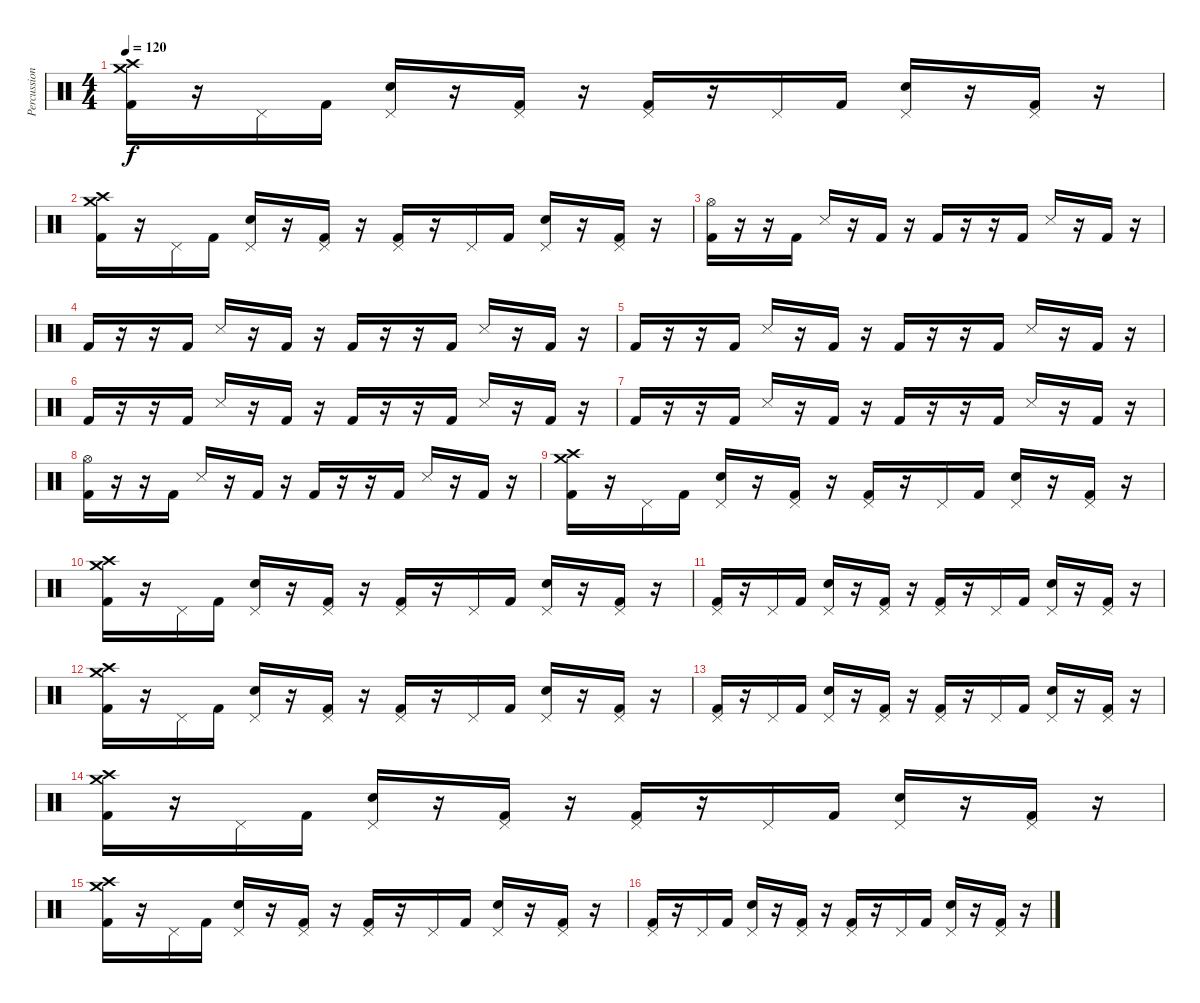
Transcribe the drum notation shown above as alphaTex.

\track ("Percussion" "Percussion") {instrument percussion}
\staff {score}
\articulation defaults
\ts (4 4)
\tempo 120
\clef neutral
\ks c
("Crash medium (hit)" "Crash high (hit)" "Kick (hit) 2").16{dy f} r.16 "Pedal Hi-Hat (hit)".16 "Kick (hit) 2".16 ("Pedal Hi-Hat (hit)" "Snare (hit) 2").16 r.16 ("Pedal Hi-Hat (hit)" "Kick (hit) 2").16 r.16 ("Pedal Hi-Hat (hit)" "Kick (hit) 2").16 r.16 "Pedal Hi-Hat (hit)".16 "Kick (hit) 2".16 ("Pedal Hi-Hat (hit)" "Snare (hit) 2").16 r.16 ("Pedal Hi-Hat (hit)" "Kick (hit) 2").16 r.16 |
("Crash medium (hit)" "Crash high (hit)" "Kick (hit) 2").16 r.16 "Pedal Hi-Hat (hit)".16 "Kick (hit) 2".16 ("Pedal Hi-Hat (hit)" "Snare (hit) 2").16 r.16 ("Pedal Hi-Hat (hit)" "Kick (hit) 2").16 r.16 ("Pedal Hi-Hat (hit)" "Kick (hit) 2").16 r.16 "Pedal Hi-Hat (hit)".16 "Kick (hit) 2".16 ("Pedal Hi-Hat (hit)" "Snare (hit) 2").16 r.16 ("Pedal Hi-Hat (hit)" "Kick (hit) 2").16 r.16 |
("Hi-Hat (open)" "Kick (hit) 2").16 r.16 r.16 "Kick (hit) 2".16 "Snare (side stick) 3".16 r.16 "Kick (hit) 2".16 r.16 "Kick (hit) 2".16 r.16 r.16 "Kick (hit) 2".16 "Snare (side stick) 3".16 r.16 "Kick (hit) 2".16 r.16 |
"Kick (hit) 2".16 r.16 r.16 "Kick (hit) 2".16 "Snare (side stick) 3".16 r.16 "Kick (hit) 2".16 r.16 "Kick (hit) 2".16 r.16 r.16 "Kick (hit) 2".16 "Snare (side stick) 3".16 r.16 "Kick (hit) 2".16 r.16 |
"Kick (hit) 2".16 r.16 r.16 "Kick (hit) 2".16 "Snare (side stick) 3".16 r.16 "Kick (hit) 2".16 r.16 "Kick (hit) 2".16 r.16 r.16 "Kick (hit) 2".16 "Snare (side stick) 3".16 r.16 "Kick (hit) 2".16 r.16 |
"Kick (hit) 2".16 r.16 r.16 "Kick (hit) 2".16 "Snare (side stick) 3".16 r.16 "Kick (hit) 2".16 r.16 "Kick (hit) 2".16 r.16 r.16 "Kick (hit) 2".16 "Snare (side stick) 3".16 r.16 "Kick (hit) 2".16 r.16 |
"Kick (hit) 2".16 r.16 r.16 "Kick (hit) 2".16 "Snare (side stick) 3".16 r.16 "Kick (hit) 2".16 r.16 "Kick (hit) 2".16 r.16 r.16 "Kick (hit) 2".16 "Snare (side stick) 3".16 r.16 "Kick (hit) 2".16 r.16 |
("Hi-Hat (open)" "Kick (hit) 2").16 r.16 r.16 "Kick (hit) 2".16 "Snare (side stick) 3".16 r.16 "Kick (hit) 2".16 r.16 "Kick (hit) 2".16 r.16 r.16 "Kick (hit) 2".16 "Snare (side stick) 3".16 r.16 "Kick (hit) 2".16 r.16 |
("Crash medium (hit)" "Crash high (hit)" "Kick (hit) 2").16 r.16 "Pedal Hi-Hat (hit)".16 "Kick (hit) 2".16 ("Pedal Hi-Hat (hit)" "Snare (hit) 2").16 r.16 ("Pedal Hi-Hat (hit)" "Kick (hit) 2").16 r.16 ("Pedal Hi-Hat (hit)" "Kick (hit) 2").16 r.16 "Pedal Hi-Hat (hit)".16 "Kick (hit) 2".16 ("Pedal Hi-Hat (hit)" "Snare (hit) 2").16 r.16 ("Pedal Hi-Hat (hit)" "Kick (hit) 2").16 r.16 |
("Crash medium (hit)" "Crash high (hit)" "Kick (hit) 2").16 r.16 "Pedal Hi-Hat (hit)".16 "Kick (hit) 2".16 ("Pedal Hi-Hat (hit)" "Snare (hit) 2").16 r.16 ("Pedal Hi-Hat (hit)" "Kick (hit) 2").16 r.16 ("Pedal Hi-Hat (hit)" "Kick (hit) 2").16 r.16 "Pedal Hi-Hat (hit)".16 "Kick (hit) 2".16 ("Pedal Hi-Hat (hit)" "Snare (hit) 2").16 r.16 ("Pedal Hi-Hat (hit)" "Kick (hit) 2").16 r.16 |
("Pedal Hi-Hat (hit)" "Kick (hit) 2").16 r.16 "Pedal Hi-Hat (hit)".16 "Kick (hit) 2".16 ("Pedal Hi-Hat (hit)" "Snare (hit) 2").16 r.16 ("Pedal Hi-Hat (hit)" "Kick (hit) 2").16 r.16 ("Pedal Hi-Hat (hit)" "Kick (hit) 2").16 r.16 "Pedal Hi-Hat (hit)".16 "Kick (hit) 2".16 ("Pedal Hi-Hat (hit)" "Snare (hit) 2").16 r.16 ("Pedal Hi-Hat (hit)" "Kick (hit) 2").16 r.16 |
("Crash medium (hit)" "Crash high (hit)" "Kick (hit) 2").16 r.16 "Pedal Hi-Hat (hit)".16 "Kick (hit) 2".16 ("Pedal Hi-Hat (hit)" "Snare (hit) 2").16 r.16 ("Pedal Hi-Hat (hit)" "Kick (hit) 2").16 r.16 ("Pedal Hi-Hat (hit)" "Kick (hit) 2").16 r.16 "Pedal Hi-Hat (hit)".16 "Kick (hit) 2".16 ("Pedal Hi-Hat (hit)" "Snare (hit) 2").16 r.16 ("Pedal Hi-Hat (hit)" "Kick (hit) 2").16 r.16 |
("Pedal Hi-Hat (hit)" "Kick (hit) 2").16 r.16 "Pedal Hi-Hat (hit)".16 "Kick (hit) 2".16 ("Pedal Hi-Hat (hit)" "Snare (hit) 2").16 r.16 ("Pedal Hi-Hat (hit)" "Kick (hit) 2").16 r.16 ("Pedal Hi-Hat (hit)" "Kick (hit) 2").16 r.16 "Pedal Hi-Hat (hit)".16 "Kick (hit) 2".16 ("Pedal Hi-Hat (hit)" "Snare (hit) 2").16 r.16 ("Pedal Hi-Hat (hit)" "Kick (hit) 2").16 r.16 |
("Crash medium (hit)" "Crash high (hit)" "Kick (hit) 2").16 r.16 "Pedal Hi-Hat (hit)".16 "Kick (hit) 2".16 ("Pedal Hi-Hat (hit)" "Snare (hit) 2").16 r.16 ("Pedal Hi-Hat (hit)" "Kick (hit) 2").16 r.16 ("Pedal Hi-Hat (hit)" "Kick (hit) 2").16 r.16 "Pedal Hi-Hat (hit)".16 "Kick (hit) 2".16 ("Pedal Hi-Hat (hit)" "Snare (hit) 2").16 r.16 ("Pedal Hi-Hat (hit)" "Kick (hit) 2").16 r.16 |
("Crash medium (hit)" "Crash high (hit)" "Kick (hit) 2").16 r.16 "Pedal Hi-Hat (hit)".16 "Kick (hit) 2".16 ("Pedal Hi-Hat (hit)" "Snare (hit) 2").16 r.16 ("Pedal Hi-Hat (hit)" "Kick (hit) 2").16 r.16 ("Pedal Hi-Hat (hit)" "Kick (hit) 2").16 r.16 "Pedal Hi-Hat (hit)".16 "Kick (hit) 2".16 ("Pedal Hi-Hat (hit)" "Snare (hit) 2").16 r.16 ("Pedal Hi-Hat (hit)" "Kick (hit) 2").16 r.16 |
("Pedal Hi-Hat (hit)" "Kick (hit) 2").16 r.16 "Pedal Hi-Hat (hit)".16 "Kick (hit) 2".16 ("Pedal Hi-Hat (hit)" "Snare (hit) 2").16 r.16 ("Pedal Hi-Hat (hit)" "Kick (hit) 2").16 r.16 ("Pedal Hi-Hat (hit)" "Kick (hit) 2").16 r.16 "Pedal Hi-Hat (hit)".16 "Kick (hit) 2".16 ("Pedal Hi-Hat (hit)" "Snare (hit) 2").16 r.16 ("Pedal Hi-Hat (hit)" "Kick (hit) 2").16 r.16
